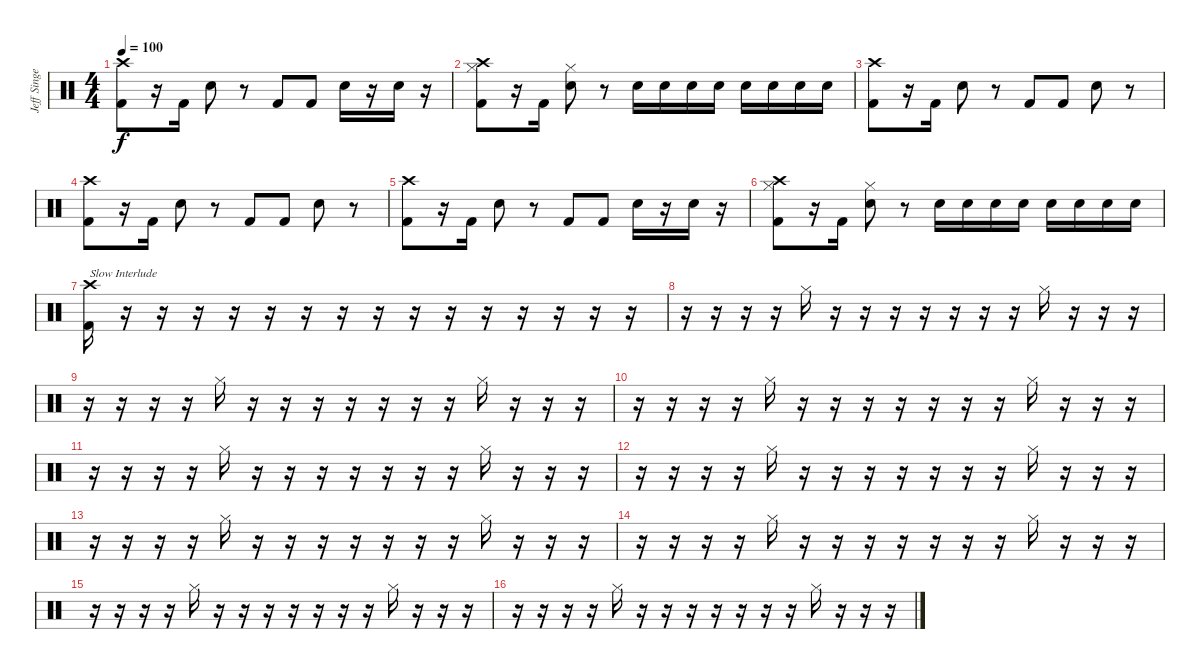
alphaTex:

\track ("Jeff Singer" "Jeff Singe") {instrument percussion}
\staff {score}
\articulation defaults
\ts (4 4)
\tempo 100
\clef neutral
\ks c
("Kick (hit) 2" "Crash high (hit)").8{dy f} r.16 "Kick (hit) 2".16 "Snare (hit) 2".8 r.8 "Kick (hit) 2".8 "Kick (hit) 2".8 "Snare (hit) 2".16 r.16 "Snare (hit) 2".16 r.16 |
("Hi-Hat (closed)" "Kick (hit) 2" "Crash high (hit)").8 r.16 "Kick (hit) 2".16 ("Hi-Hat (closed)" "Snare (hit) 2").8 r.8 "Snare (hit) 2".16 "Snare (hit) 2".16 "Snare (hit) 2".16 "Snare (hit) 2".16 "Snare (hit) 2".16 "Snare (hit) 2".16 "Snare (hit) 2".16 "Snare (hit) 2".16 |
("Kick (hit) 2" "Crash high (hit)").8 r.16 "Kick (hit) 2".16 "Snare (hit) 2".8 r.8 "Kick (hit) 2".8 "Kick (hit) 2".8 "Snare (hit) 2".8 r.8 |
("Kick (hit) 2" "Crash high (hit)").8 r.16 "Kick (hit) 2".16 "Snare (hit) 2".8 r.8 "Kick (hit) 2".8 "Kick (hit) 2".8 "Snare (hit) 2".8 r.8 |
("Kick (hit) 2" "Crash high (hit)").8 r.16 "Kick (hit) 2".16 "Snare (hit) 2".8 r.8 "Kick (hit) 2".8 "Kick (hit) 2".8 "Snare (hit) 2".16 r.16 "Snare (hit) 2".16 r.16 |
("Hi-Hat (closed)" "Kick (hit) 2" "Crash high (hit)").8 r.16 "Kick (hit) 2".16 ("Hi-Hat (closed)" "Snare (hit) 2").8 r.8 "Snare (hit) 2".16 "Snare (hit) 2".16 "Snare (hit) 2".16 "Snare (hit) 2".16 "Snare (hit) 2".16 "Snare (hit) 2".16 "Snare (hit) 2".16 "Snare (hit) 2".16 |
("Kick (hit) 2" "Crash high (hit)").16{txt "Slow Interlude"} r.16 r.16 r.16 r.16 r.16 r.16 r.16 r.16 r.16 r.16 r.16 r.16 r.16 r.16 r.16 |
r.16 r.16 r.16 r.16 "Hi-Hat (closed)".16 r.16 r.16 r.16 r.16 r.16 r.16 r.16 "Hi-Hat (closed)".16 r.16 r.16 r.16 |
r.16 r.16 r.16 r.16 "Hi-Hat (closed)".16 r.16 r.16 r.16 r.16 r.16 r.16 r.16 "Hi-Hat (closed)".16 r.16 r.16 r.16 |
r.16 r.16 r.16 r.16 "Hi-Hat (closed)".16 r.16 r.16 r.16 r.16 r.16 r.16 r.16 "Hi-Hat (closed)".16 r.16 r.16 r.16 |
r.16 r.16 r.16 r.16 "Hi-Hat (closed)".16 r.16 r.16 r.16 r.16 r.16 r.16 r.16 "Hi-Hat (closed)".16 r.16 r.16 r.16 |
r.16 r.16 r.16 r.16 "Hi-Hat (closed)".16 r.16 r.16 r.16 r.16 r.16 r.16 r.16 "Hi-Hat (closed)".16 r.16 r.16 r.16 |
r.16 r.16 r.16 r.16 "Hi-Hat (closed)".16 r.16 r.16 r.16 r.16 r.16 r.16 r.16 "Hi-Hat (closed)".16 r.16 r.16 r.16 |
r.16 r.16 r.16 r.16 "Hi-Hat (closed)".16 r.16 r.16 r.16 r.16 r.16 r.16 r.16 "Hi-Hat (closed)".16 r.16 r.16 r.16 |
r.16 r.16 r.16 r.16 "Hi-Hat (closed)".16 r.16 r.16 r.16 r.16 r.16 r.16 r.16 "Hi-Hat (closed)".16 r.16 r.16 r.16 |
r.16 r.16 r.16 r.16 "Hi-Hat (closed)".16 r.16 r.16 r.16 r.16 r.16 r.16 r.16 "Hi-Hat (closed)".16 r.16 r.16 r.16
